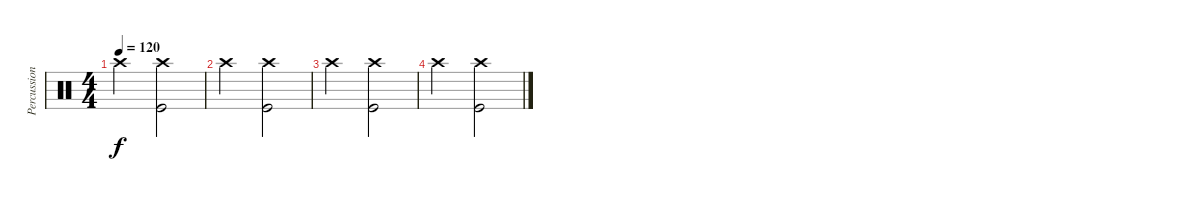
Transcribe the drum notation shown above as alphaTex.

\track ("Percussion" "Percussion") {instrument percussion}
\staff {score}
\articulation defaults
\ts (4 4)
\tempo 120
\clef neutral
\ks c "Crash high (hit)".2{dy f}
("Crash high (hit)" "Kick (hit)").2 |
"Crash high (hit)".2 ("Crash high (hit)" "Kick (hit)").2 |
"Crash high (hit)".2 ("Crash high (hit)" "Kick (hit)").2 |
"Crash high (hit)".2 ("Crash high (hit)" "Kick (hit)").2
